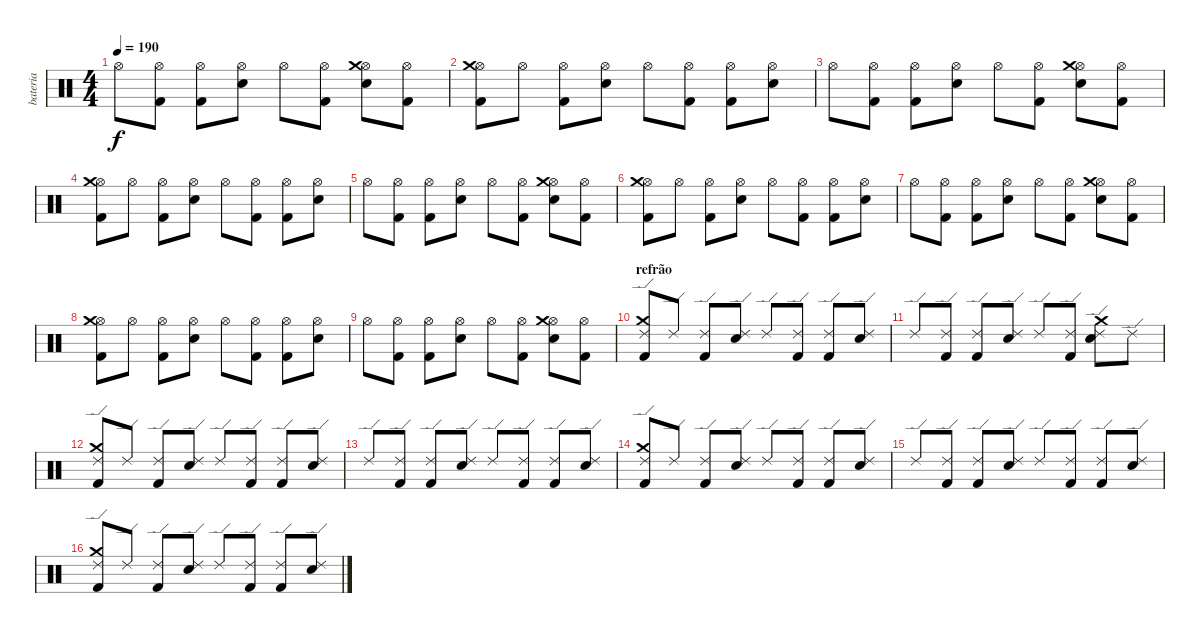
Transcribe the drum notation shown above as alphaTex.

\track ("bateria" "bateria") {instrument percussion}
\staff {score}
\articulation defaults
\ts (4 4)
\tempo 190
\clef neutral
\ks c "Hi-Hat (open)".8{dy f}
("Hi-Hat (open)" "Kick (hit) 2").8 ("Hi-Hat (open)" "Kick (hit) 2").8 ("Hi-Hat (open)" "Electric Snare (hit)").8 "Hi-Hat (open)".8 ("Hi-Hat (open)" "Kick (hit) 2").8 ("Hi-Hat (open)" "Electric Snare (hit)" "Crash medium (hit)").8 ("Hi-Hat (open)" "Kick (hit) 2").8 |
("Hi-Hat (open)" "Kick (hit) 2" "Crash medium (hit)").8 "Hi-Hat (open)".8 ("Hi-Hat (open)" "Kick (hit) 2").8 ("Hi-Hat (open)" "Electric Snare (hit)").8 "Hi-Hat (open)".8 ("Hi-Hat (open)" "Kick (hit) 2").8 ("Hi-Hat (open)" "Kick (hit) 2").8 ("Hi-Hat (open)" "Electric Snare (hit)").8 |
"Hi-Hat (open)".8 ("Hi-Hat (open)" "Kick (hit) 2").8 ("Hi-Hat (open)" "Kick (hit) 2").8 ("Hi-Hat (open)" "Electric Snare (hit)").8 "Hi-Hat (open)".8 ("Hi-Hat (open)" "Kick (hit) 2").8 ("Hi-Hat (open)" "Electric Snare (hit)" "Crash medium (hit)").8 ("Hi-Hat (open)" "Kick (hit) 2").8 |
("Hi-Hat (open)" "Kick (hit) 2" "Crash medium (hit)").8 "Hi-Hat (open)".8 ("Hi-Hat (open)" "Kick (hit) 2").8 ("Hi-Hat (open)" "Electric Snare (hit)").8 "Hi-Hat (open)".8 ("Hi-Hat (open)" "Kick (hit) 2").8 ("Hi-Hat (open)" "Kick (hit) 2").8 ("Hi-Hat (open)" "Electric Snare (hit)").8 |
"Hi-Hat (open)".8 ("Hi-Hat (open)" "Kick (hit) 2").8 ("Hi-Hat (open)" "Kick (hit) 2").8 ("Hi-Hat (open)" "Electric Snare (hit)").8 "Hi-Hat (open)".8 ("Hi-Hat (open)" "Kick (hit) 2").8 ("Hi-Hat (open)" "Electric Snare (hit)" "Crash medium (hit)").8 ("Hi-Hat (open)" "Kick (hit) 2").8 |
("Hi-Hat (open)" "Kick (hit) 2" "Crash medium (hit)").8 "Hi-Hat (open)".8 ("Hi-Hat (open)" "Kick (hit) 2").8 ("Hi-Hat (open)" "Electric Snare (hit)").8 "Hi-Hat (open)".8 ("Hi-Hat (open)" "Kick (hit) 2").8 ("Hi-Hat (open)" "Kick (hit) 2").8 ("Hi-Hat (open)" "Electric Snare (hit)").8 |
"Hi-Hat (open)".8 ("Hi-Hat (open)" "Kick (hit) 2").8 ("Hi-Hat (open)" "Kick (hit) 2").8 ("Hi-Hat (open)" "Electric Snare (hit)").8 "Hi-Hat (open)".8 ("Hi-Hat (open)" "Kick (hit) 2").8 ("Hi-Hat (open)" "Electric Snare (hit)" "Crash medium (hit)").8 ("Hi-Hat (open)" "Kick (hit) 2").8 |
("Hi-Hat (open)" "Kick (hit) 2" "Crash medium (hit)").8 "Hi-Hat (open)".8 ("Hi-Hat (open)" "Kick (hit) 2").8 ("Hi-Hat (open)" "Electric Snare (hit)").8 "Hi-Hat (open)".8 ("Hi-Hat (open)" "Kick (hit) 2").8 ("Hi-Hat (open)" "Kick (hit) 2").8 ("Hi-Hat (open)" "Electric Snare (hit)").8 |
"Hi-Hat (open)".8 ("Hi-Hat (open)" "Kick (hit) 2").8 ("Hi-Hat (open)" "Kick (hit) 2").8 ("Hi-Hat (open)" "Electric Snare (hit)").8 "Hi-Hat (open)".8 ("Hi-Hat (open)" "Kick (hit) 2").8 ("Hi-Hat (open)" "Electric Snare (hit)" "Crash medium (hit)").8 ("Hi-Hat (open)" "Kick (hit) 2").8 |
\section ("" "refrão")
("Ride (edge) 2" "Kick (hit) 2" "Crash medium (hit)").8 "Ride (edge) 2".8 ("Ride (edge) 2" "Kick (hit) 2").8 ("Ride (edge) 2" "Electric Snare (hit)").8 "Ride (edge) 2".8 ("Ride (edge) 2" "Kick (hit) 2").8 ("Ride (edge) 2" "Kick (hit) 2").8 ("Ride (edge) 2" "Electric Snare (hit)").8 |
"Ride (edge) 2".8 ("Ride (edge) 2" "Kick (hit) 2").8 ("Ride (edge) 2" "Kick (hit) 2").8 ("Ride (edge) 2" "Electric Snare (hit)").8 "Ride (edge) 2".8 ("Ride (edge) 2" "Kick (hit) 2").8 ("Ride (edge) 2" "Electric Snare (hit)" "Crash medium (hit)").8 "Ride (edge) 2".8 |
("Ride (edge) 2" "Kick (hit) 2" "Crash medium (hit)").8 "Ride (edge) 2".8 ("Ride (edge) 2" "Kick (hit) 2").8 ("Ride (edge) 2" "Electric Snare (hit)").8 "Ride (edge) 2".8 ("Ride (edge) 2" "Kick (hit) 2").8 ("Ride (edge) 2" "Kick (hit) 2").8 ("Ride (edge) 2" "Electric Snare (hit)").8 |
"Ride (edge) 2".8 ("Ride (edge) 2" "Kick (hit) 2").8 ("Ride (edge) 2" "Kick (hit) 2").8 ("Ride (edge) 2" "Electric Snare (hit)").8 "Ride (edge) 2".8 ("Ride (edge) 2" "Kick (hit) 2").8 ("Ride (edge) 2" "Kick (hit) 2").8 ("Ride (edge) 2" "Electric Snare (hit)").8 |
("Ride (edge) 2" "Kick (hit) 2" "Crash medium (hit)").8 "Ride (edge) 2".8 ("Ride (edge) 2" "Kick (hit) 2").8 ("Ride (edge) 2" "Electric Snare (hit)").8 "Ride (edge) 2".8 ("Ride (edge) 2" "Kick (hit) 2").8 ("Ride (edge) 2" "Kick (hit) 2").8 ("Ride (edge) 2" "Electric Snare (hit)").8 |
"Ride (edge) 2".8 ("Ride (edge) 2" "Kick (hit) 2").8 ("Ride (edge) 2" "Kick (hit) 2").8 ("Ride (edge) 2" "Electric Snare (hit)").8 "Ride (edge) 2".8 ("Ride (edge) 2" "Kick (hit) 2").8 ("Ride (edge) 2" "Kick (hit) 2").8 ("Ride (edge) 2" "Electric Snare (hit)").8 |
("Ride (edge) 2" "Kick (hit) 2" "Crash medium (hit)").8 "Ride (edge) 2".8 ("Ride (edge) 2" "Kick (hit) 2").8 ("Ride (edge) 2" "Electric Snare (hit)").8 "Ride (edge) 2".8 ("Ride (edge) 2" "Kick (hit) 2").8 ("Ride (edge) 2" "Kick (hit) 2").8 ("Ride (edge) 2" "Electric Snare (hit)").8
